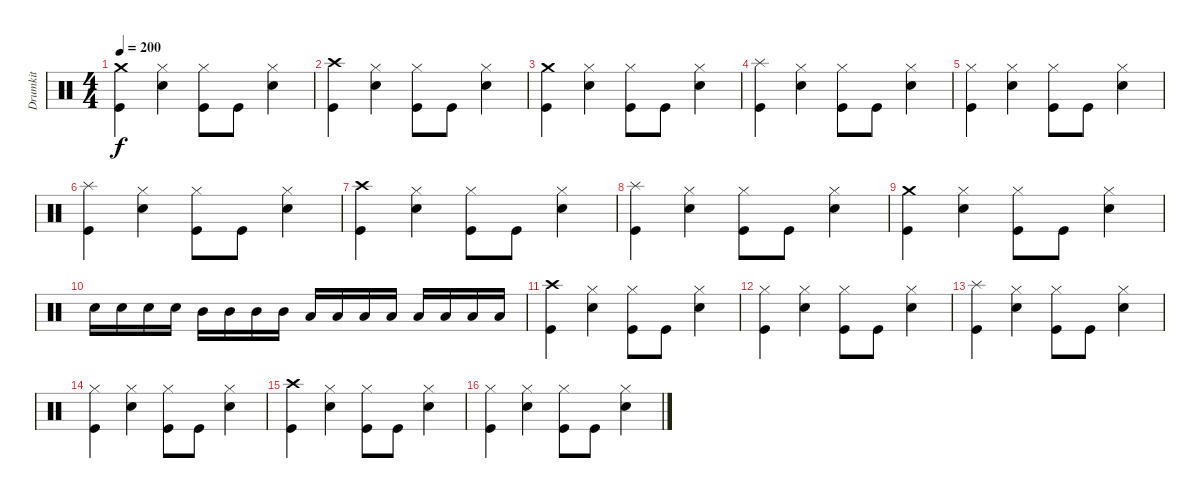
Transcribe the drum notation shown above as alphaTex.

\track ("Drumkit" "Drumkit") {instrument percussion}
\staff {score}
\articulation defaults
\ts (4 4)
\tempo 200
\clef neutral
\ks c
("Crash medium (hit)" "Kick (hit)").4{dy f} ("Hi-Hat (closed)" "Snare (hit) 2").4 ("Hi-Hat (closed)" "Kick (hit)").8 "Kick (hit)".8 ("Hi-Hat (closed)" "Snare (hit) 2").4 |
("Crash high (hit)" "Kick (hit)").4 ("Hi-Hat (closed)" "Snare (hit) 2").4 ("Hi-Hat (closed)" "Kick (hit)").8 "Kick (hit)".8 ("Hi-Hat (closed)" "Snare (hit) 2").4 |
("Crash medium (hit)" "Kick (hit)").4 ("Hi-Hat (closed)" "Snare (hit) 2").4 ("Hi-Hat (closed)" "Kick (hit)").8 "Kick (hit)".8 ("Hi-Hat (closed)" "Snare (hit) 2").4 |
("Splash (hit)" "Kick (hit)").4 ("Hi-Hat (closed)" "Snare (hit) 2").4 ("Hi-Hat (closed)" "Kick (hit)").8 "Kick (hit)".8 ("Hi-Hat (closed)" "Snare (hit) 2").4 |
("Hi-Hat (closed)" "Kick (hit)").4 ("Hi-Hat (closed)" "Snare (hit) 2").4 ("Hi-Hat (closed)" "Kick (hit)").8 "Kick (hit)".8 ("Hi-Hat (closed)" "Snare (hit) 2").4 |
("Splash (hit)" "Kick (hit)").4 ("Hi-Hat (closed)" "Snare (hit) 2").4 ("Hi-Hat (closed)" "Kick (hit)").8 "Kick (hit)".8 ("Hi-Hat (closed)" "Snare (hit) 2").4 |
("Crash high (hit)" "Kick (hit)").4 ("Hi-Hat (closed)" "Snare (hit) 2").4 ("Hi-Hat (closed)" "Kick (hit)").8 "Kick (hit)".8 ("Hi-Hat (closed)" "Snare (hit) 2").4 |
("Splash (hit)" "Kick (hit)").4 ("Hi-Hat (closed)" "Snare (hit) 2").4 ("Hi-Hat (closed)" "Kick (hit)").8 "Kick (hit)".8 ("Hi-Hat (closed)" "Snare (hit) 2").4 |
("Crash medium (hit)" "Kick (hit)").4 ("Hi-Hat (closed)" "Snare (hit) 2").4 ("Hi-Hat (closed)" "Kick (hit)").8 "Kick (hit)".8 ("Hi-Hat (closed)" "Snare (hit) 2").4 |
"Snare (hit) 2".16 "Snare (hit) 2".16 "Snare (hit) 2".16 "Snare (hit) 2".16 "Mid Tom (hit)".16 "Mid Tom (hit)".16 "Mid Tom (hit)".16 "Mid Tom (hit)".16 "Low Tom (hit)".16 "Low Tom (hit)".16 "Low Tom (hit)".16 "Low Tom (hit)".16 "Low Floor Tom (hit)".16 "Low Floor Tom (hit)".16 "Low Floor Tom (hit)".16 "Low Floor Tom (hit)".16 |
("Crash high (hit)" "Kick (hit)").4 ("Hi-Hat (closed)" "Snare (hit) 2").4 ("Hi-Hat (closed)" "Kick (hit)").8 "Kick (hit)".8 ("Hi-Hat (closed)" "Snare (hit) 2").4 |
("Hi-Hat (closed)" "Kick (hit)").4 ("Hi-Hat (closed)" "Snare (hit) 2").4 ("Hi-Hat (closed)" "Kick (hit)").8 "Kick (hit)".8 ("Hi-Hat (closed)" "Snare (hit) 2").4 |
("Splash (hit)" "Kick (hit)").4 ("Hi-Hat (closed)" "Snare (hit) 2").4 ("Hi-Hat (closed)" "Kick (hit)").8 "Kick (hit)".8 ("Hi-Hat (closed)" "Snare (hit) 2").4 |
("Hi-Hat (closed)" "Kick (hit)").4 ("Hi-Hat (closed)" "Snare (hit) 2").4 ("Hi-Hat (closed)" "Kick (hit)").8 "Kick (hit)".8 ("Hi-Hat (closed)" "Snare (hit) 2").4 |
("Crash high (hit)" "Kick (hit)").4 ("Hi-Hat (closed)" "Snare (hit) 2").4 ("Hi-Hat (closed)" "Kick (hit)").8 "Kick (hit)".8 ("Hi-Hat (closed)" "Snare (hit) 2").4 |
("Hi-Hat (closed)" "Kick (hit)").4 ("Hi-Hat (closed)" "Snare (hit) 2").4 ("Hi-Hat (closed)" "Kick (hit)").8 "Kick (hit)".8 ("Hi-Hat (closed)" "Snare (hit) 2").4
